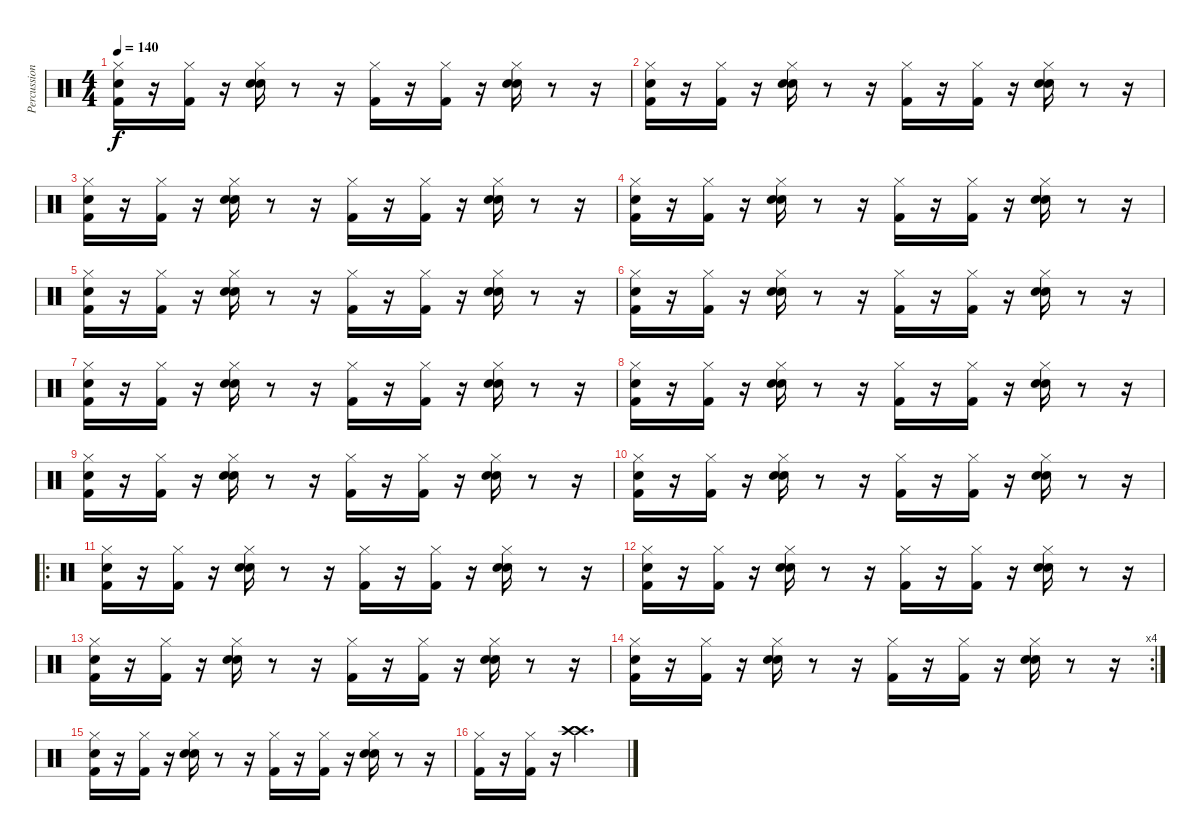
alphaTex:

\track ("Percussion" "Percussion") {instrument percussion}
\staff {score}
\articulation defaults
\ts (4 4)
\tempo 140
\clef neutral
\ks c
("Snare (hit)" "Kick (hit) 2" "Hi-Hat (closed)").16{dy f} r.16 ("Kick (hit) 2" "Hi-Hat (closed)").16 r.16 ("Hand Clap (hit)" "Hi-Hat (closed)" "Snare (hit) 2").16 r.8 r.16 ("Hi-Hat (closed)" "Kick (hit) 2").16 r.16 ("Hi-Hat (closed)" "Kick (hit) 2").16 r.16 ("Snare (hit) 2" "Hand Clap (hit)" "Hi-Hat (closed)").16 r.8 r.16 |
("Snare (hit)" "Kick (hit) 2" "Hi-Hat (closed)").16 r.16 ("Kick (hit) 2" "Hi-Hat (closed)").16 r.16 ("Hand Clap (hit)" "Hi-Hat (closed)" "Snare (hit) 2").16 r.8 r.16 ("Hi-Hat (closed)" "Kick (hit) 2").16 r.16 ("Hi-Hat (closed)" "Kick (hit) 2").16 r.16 ("Snare (hit) 2" "Hand Clap (hit)" "Hi-Hat (closed)").16 r.8 r.16 |
("Snare (hit)" "Kick (hit) 2" "Hi-Hat (closed)").16 r.16 ("Kick (hit) 2" "Hi-Hat (closed)").16 r.16 ("Hand Clap (hit)" "Hi-Hat (closed)" "Snare (hit) 2").16 r.8 r.16 ("Hi-Hat (closed)" "Kick (hit) 2").16 r.16 ("Hi-Hat (closed)" "Kick (hit) 2").16 r.16 ("Snare (hit) 2" "Hand Clap (hit)" "Hi-Hat (closed)").16 r.8 r.16 |
("Snare (hit)" "Kick (hit) 2" "Hi-Hat (closed)").16 r.16 ("Kick (hit) 2" "Hi-Hat (closed)").16 r.16 ("Hand Clap (hit)" "Hi-Hat (closed)" "Snare (hit) 2").16 r.8 r.16 ("Hi-Hat (closed)" "Kick (hit) 2").16 r.16 ("Hi-Hat (closed)" "Kick (hit) 2").16 r.16 ("Snare (hit) 2" "Hand Clap (hit)" "Hi-Hat (closed)").16 r.8 r.16 |
("Snare (hit)" "Kick (hit) 2" "Hi-Hat (closed)").16 r.16 ("Kick (hit) 2" "Hi-Hat (closed)").16 r.16 ("Hand Clap (hit)" "Hi-Hat (closed)" "Snare (hit) 2").16 r.8 r.16 ("Hi-Hat (closed)" "Kick (hit) 2").16 r.16 ("Hi-Hat (closed)" "Kick (hit) 2").16 r.16 ("Snare (hit) 2" "Hand Clap (hit)" "Hi-Hat (closed)").16 r.8 r.16 |
("Snare (hit)" "Kick (hit) 2" "Hi-Hat (closed)").16 r.16 ("Kick (hit) 2" "Hi-Hat (closed)").16 r.16 ("Hand Clap (hit)" "Hi-Hat (closed)" "Snare (hit) 2").16 r.8 r.16 ("Hi-Hat (closed)" "Kick (hit) 2").16 r.16 ("Hi-Hat (closed)" "Kick (hit) 2").16 r.16 ("Snare (hit) 2" "Hand Clap (hit)" "Hi-Hat (closed)").16 r.8 r.16 |
("Snare (hit)" "Kick (hit) 2" "Hi-Hat (closed)").16 r.16 ("Kick (hit) 2" "Hi-Hat (closed)").16 r.16 ("Hand Clap (hit)" "Hi-Hat (closed)" "Snare (hit) 2").16 r.8 r.16 ("Hi-Hat (closed)" "Kick (hit) 2").16 r.16 ("Hi-Hat (closed)" "Kick (hit) 2").16 r.16 ("Snare (hit) 2" "Hand Clap (hit)" "Hi-Hat (closed)").16 r.8 r.16 |
("Snare (hit)" "Kick (hit) 2" "Hi-Hat (closed)").16 r.16 ("Kick (hit) 2" "Hi-Hat (closed)").16 r.16 ("Hand Clap (hit)" "Hi-Hat (closed)" "Snare (hit) 2").16 r.8 r.16 ("Hi-Hat (closed)" "Kick (hit) 2").16 r.16 ("Hi-Hat (closed)" "Kick (hit) 2").16 r.16 ("Snare (hit) 2" "Hand Clap (hit)" "Hi-Hat (closed)").16 r.8 r.16 |
("Snare (hit)" "Kick (hit) 2" "Hi-Hat (closed)").16 r.16 ("Kick (hit) 2" "Hi-Hat (closed)").16 r.16 ("Hand Clap (hit)" "Hi-Hat (closed)" "Snare (hit) 2").16 r.8 r.16 ("Hi-Hat (closed)" "Kick (hit) 2").16 r.16 ("Hi-Hat (closed)" "Kick (hit) 2").16 r.16 ("Snare (hit) 2" "Hand Clap (hit)" "Hi-Hat (closed)").16 r.8 r.16 |
("Snare (hit)" "Kick (hit) 2" "Hi-Hat (closed)").16 r.16 ("Kick (hit) 2" "Hi-Hat (closed)").16 r.16 ("Hand Clap (hit)" "Hi-Hat (closed)" "Snare (hit) 2").16 r.8 r.16 ("Hi-Hat (closed)" "Kick (hit) 2").16 r.16 ("Hi-Hat (closed)" "Kick (hit) 2").16 r.16 ("Snare (hit) 2" "Hand Clap (hit)" "Hi-Hat (closed)").16 r.8 r.16 |
\ro
("Snare (hit)" "Kick (hit) 2" "Hi-Hat (closed)").16 r.16 ("Kick (hit) 2" "Hi-Hat (closed)").16 r.16 ("Hand Clap (hit)" "Hi-Hat (closed)" "Snare (hit) 2").16 r.8 r.16 ("Hi-Hat (closed)" "Kick (hit) 2").16 r.16 ("Hi-Hat (closed)" "Kick (hit) 2").16 r.16 ("Snare (hit) 2" "Hand Clap (hit)" "Hi-Hat (closed)").16 r.8 r.16 |
("Snare (hit)" "Kick (hit) 2" "Hi-Hat (closed)").16 r.16 ("Kick (hit) 2" "Hi-Hat (closed)").16 r.16 ("Hand Clap (hit)" "Hi-Hat (closed)" "Snare (hit) 2").16 r.8 r.16 ("Hi-Hat (closed)" "Kick (hit) 2").16 r.16 ("Hi-Hat (closed)" "Kick (hit) 2").16 r.16 ("Snare (hit) 2" "Hand Clap (hit)" "Hi-Hat (closed)").16 r.8 r.16 |
("Snare (hit)" "Kick (hit) 2" "Hi-Hat (closed)").16 r.16 ("Kick (hit) 2" "Hi-Hat (closed)").16 r.16 ("Hand Clap (hit)" "Hi-Hat (closed)" "Snare (hit) 2").16 r.8 r.16 ("Hi-Hat (closed)" "Kick (hit) 2").16 r.16 ("Hi-Hat (closed)" "Kick (hit) 2").16 r.16 ("Snare (hit) 2" "Hand Clap (hit)" "Hi-Hat (closed)").16 r.8 r.16 |
\rc 4
("Snare (hit)" "Kick (hit) 2" "Hi-Hat (closed)").16 r.16 ("Kick (hit) 2" "Hi-Hat (closed)").16 r.16 ("Hand Clap (hit)" "Hi-Hat (closed)" "Snare (hit) 2").16 r.8 r.16 ("Hi-Hat (closed)" "Kick (hit) 2").16 r.16 ("Hi-Hat (closed)" "Kick (hit) 2").16 r.16 ("Snare (hit) 2" "Hand Clap (hit)" "Hi-Hat (closed)").16 r.8 r.16 |
("Snare (hit)" "Kick (hit) 2" "Hi-Hat (closed)").16 r.16 ("Kick (hit) 2" "Hi-Hat (closed)").16 r.16 ("Hand Clap (hit)" "Hi-Hat (closed)" "Snare (hit) 2").16 r.8 r.16 ("Hi-Hat (closed)" "Kick (hit) 2").16 r.16 ("Hi-Hat (closed)" "Kick (hit) 2").16 r.16 ("Snare (hit) 2" "Hand Clap (hit)" "Hi-Hat (closed)").16 r.8 r.16 |
("Hi-Hat (closed)" "Kick (hit) 2").16 r.16 ("Hi-Hat (closed)" "Kick (hit) 2").16 r.16 ("Crash high (hit)" "Crash high (hit)").2{d}
